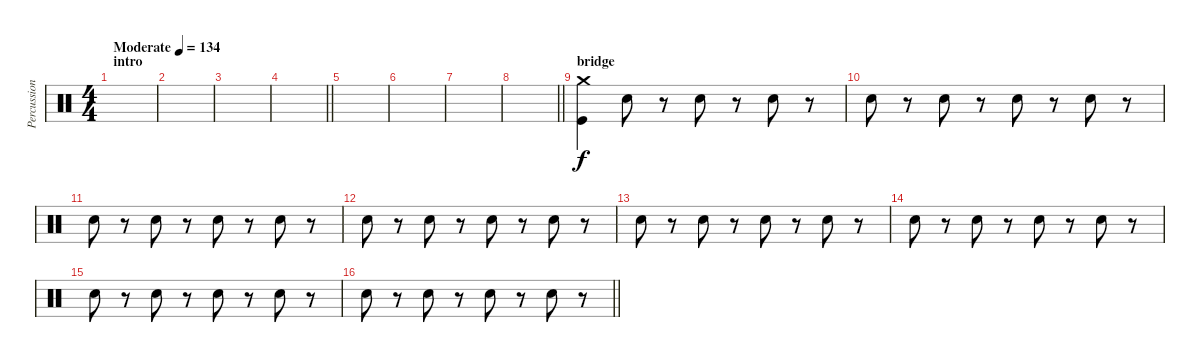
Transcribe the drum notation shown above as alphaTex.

\track ("Percussion" "Percussion") {instrument percussion}
\staff {score}
\articulation defaults
\ts (4 4)
\section ("" "intro")
\tempo (134 "Moderate")
\clef neutral
\ks c
|
|
|
\barLineRight lightlight
|
\section ("" "")
|
|
|
\barLineRight lightlight
|
\section ("" "bridge")
("Crash medium (hit)" "Kick (hit)").4 "Hand Clap (hit)".8 r.8 "Hand Clap (hit)".8 r.8 "Hand Clap (hit)".8 r.8 |
"Hand Clap (hit)".8 r.8 "Hand Clap (hit)".8 r.8 "Hand Clap (hit)".8 r.8 "Hand Clap (hit)".8 r.8 |
"Hand Clap (hit)".8 r.8 "Hand Clap (hit)".8 r.8 "Hand Clap (hit)".8 r.8 "Hand Clap (hit)".8 r.8 |
"Hand Clap (hit)".8 r.8 "Hand Clap (hit)".8 r.8 "Hand Clap (hit)".8 r.8 "Hand Clap (hit)".8 r.8 |
"Hand Clap (hit)".8 r.8 "Hand Clap (hit)".8 r.8 "Hand Clap (hit)".8 r.8 "Hand Clap (hit)".8 r.8 |
"Hand Clap (hit)".8 r.8 "Hand Clap (hit)".8 r.8 "Hand Clap (hit)".8 r.8 "Hand Clap (hit)".8 r.8 |
"Hand Clap (hit)".8 r.8 "Hand Clap (hit)".8 r.8 "Hand Clap (hit)".8 r.8 "Hand Clap (hit)".8 r.8 |
\barLineRight lightlight "Hand Clap (hit)".8
r.8 "Hand Clap (hit)".8 r.8 "Hand Clap (hit)".8 r.8 "Hand Clap (hit)".8 r.8
